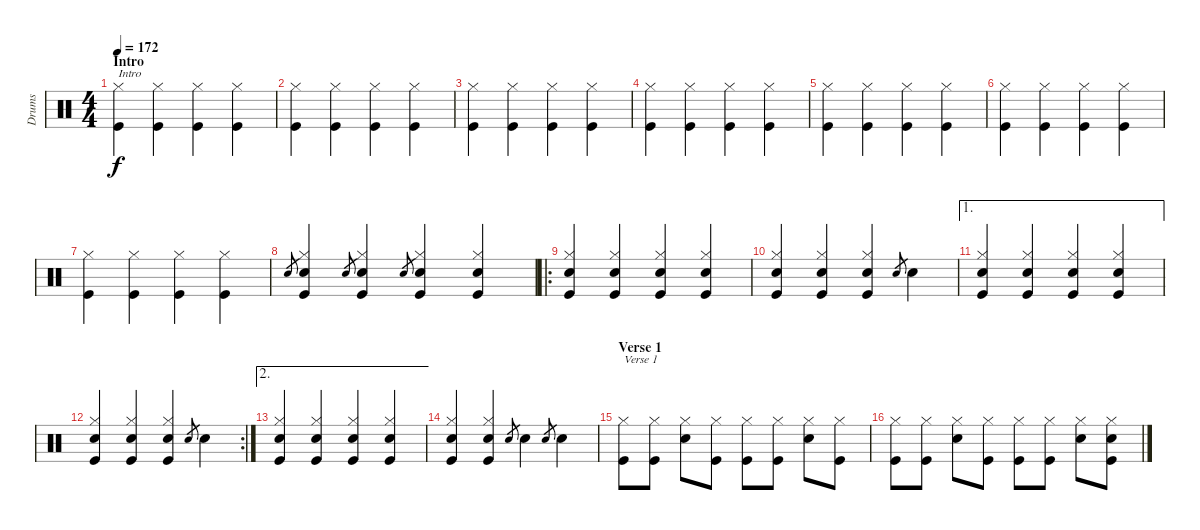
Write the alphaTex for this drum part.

\track ("Drums" "Drums") {instrument percussion}
\staff {score}
\articulation defaults
\ts (4 4)
\section ("" "Intro")
\tempo 172
\clef neutral
\ks c
("Kick (hit)" "Hi-Hat (closed)").4{txt "Intro" dy f} ("Kick (hit)" "Hi-Hat (closed)").4 ("Kick (hit)" "Hi-Hat (closed)").4 ("Kick (hit)" "Hi-Hat (closed)").4 |
("Kick (hit)" "Hi-Hat (closed)").4 ("Kick (hit)" "Hi-Hat (closed)").4 ("Kick (hit)" "Hi-Hat (closed)").4 ("Kick (hit)" "Hi-Hat (closed)").4 |
("Kick (hit)" "Hi-Hat (closed)").4 ("Kick (hit)" "Hi-Hat (closed)").4 ("Kick (hit)" "Hi-Hat (closed)").4 ("Kick (hit)" "Hi-Hat (closed)").4 |
("Kick (hit)" "Hi-Hat (closed)").4 ("Kick (hit)" "Hi-Hat (closed)").4 ("Kick (hit)" "Hi-Hat (closed)").4 ("Kick (hit)" "Hi-Hat (closed)").4 |
("Kick (hit)" "Hi-Hat (closed)").4 ("Kick (hit)" "Hi-Hat (closed)").4 ("Kick (hit)" "Hi-Hat (closed)").4 ("Kick (hit)" "Hi-Hat (closed)").4 |
("Kick (hit)" "Hi-Hat (closed)").4 ("Kick (hit)" "Hi-Hat (closed)").4 ("Kick (hit)" "Hi-Hat (closed)").4 ("Kick (hit)" "Hi-Hat (closed)").4 |
("Kick (hit)" "Hi-Hat (closed)").4 ("Kick (hit)" "Hi-Hat (closed)").4 ("Kick (hit)" "Hi-Hat (closed)").4 ("Kick (hit)" "Hi-Hat (closed)").4 |
"Snare (hit) 2".8{gr} ("Kick (hit)" "Snare (hit) 2" "Hi-Hat (closed)").4 "Snare (hit) 2".8{gr} ("Kick (hit)" "Snare (hit) 2" "Hi-Hat (closed)").4 "Snare (hit) 2".8{gr} ("Kick (hit)" "Snare (hit) 2" "Hi-Hat (closed)").4 ("Kick (hit)" "Snare (hit) 2" "Hi-Hat (closed)").4 |
\ro
("Kick (hit)" "Snare (hit) 2" "Hi-Hat (closed)").4 ("Kick (hit)" "Snare (hit) 2" "Hi-Hat (closed)").4 ("Kick (hit)" "Snare (hit) 2" "Hi-Hat (closed)").4 ("Kick (hit)" "Snare (hit) 2" "Hi-Hat (closed)").4 |
("Kick (hit)" "Snare (hit) 2" "Hi-Hat (closed)").4 ("Kick (hit)" "Snare (hit) 2" "Hi-Hat (closed)").4 ("Kick (hit)" "Snare (hit) 2" "Hi-Hat (closed)").4 "Snare (hit) 2".8{gr} "Snare (hit) 2".4 |
\ae 1
("Kick (hit)" "Snare (hit) 2" "Hi-Hat (closed)").4 ("Kick (hit)" "Snare (hit) 2" "Hi-Hat (closed)").4 ("Kick (hit)" "Snare (hit) 2" "Hi-Hat (closed)").4 ("Kick (hit)" "Snare (hit) 2" "Hi-Hat (closed)").4 |
\rc 2
("Kick (hit)" "Snare (hit) 2" "Hi-Hat (closed)").4 ("Kick (hit)" "Snare (hit) 2" "Hi-Hat (closed)").4 ("Kick (hit)" "Snare (hit) 2" "Hi-Hat (closed)").4 "Snare (hit) 2".8{gr} "Snare (hit) 2".4 |
\ae 2
("Kick (hit)" "Snare (hit) 2" "Hi-Hat (closed)").4 ("Kick (hit)" "Snare (hit) 2" "Hi-Hat (closed)").4 ("Kick (hit)" "Snare (hit) 2" "Hi-Hat (closed)").4 ("Kick (hit)" "Snare (hit) 2" "Hi-Hat (closed)").4 |
("Kick (hit)" "Snare (hit) 2" "Hi-Hat (closed)").4 ("Kick (hit)" "Snare (hit) 2" "Hi-Hat (closed)").4 "Snare (hit) 2".8{gr} "Snare (hit) 2".4 "Snare (hit) 2".8{gr} "Snare (hit) 2".4 |
\section ("" "Verse 1")
("Kick (hit)" "Hi-Hat (closed)").8{txt "Verse 1"} ("Kick (hit)" "Hi-Hat (closed)").8 ("Snare (hit) 2" "Hi-Hat (closed)").8 ("Kick (hit)" "Hi-Hat (closed)").8 ("Kick (hit)" "Hi-Hat (closed)").8 ("Kick (hit)" "Hi-Hat (closed)").8 ("Snare (hit) 2" "Hi-Hat (closed)").8 ("Kick (hit)" "Hi-Hat (closed)").8 |
("Kick (hit)" "Hi-Hat (closed)").8 ("Kick (hit)" "Hi-Hat (closed)").8 ("Snare (hit) 2" "Hi-Hat (closed)").8 ("Kick (hit)" "Hi-Hat (closed)").8 ("Kick (hit)" "Hi-Hat (closed)").8 ("Kick (hit)" "Hi-Hat (closed)").8 ("Snare (hit) 2" "Hi-Hat (closed)").8 ("Kick (hit)" "Snare (hit) 2" "Hi-Hat (closed)").8
